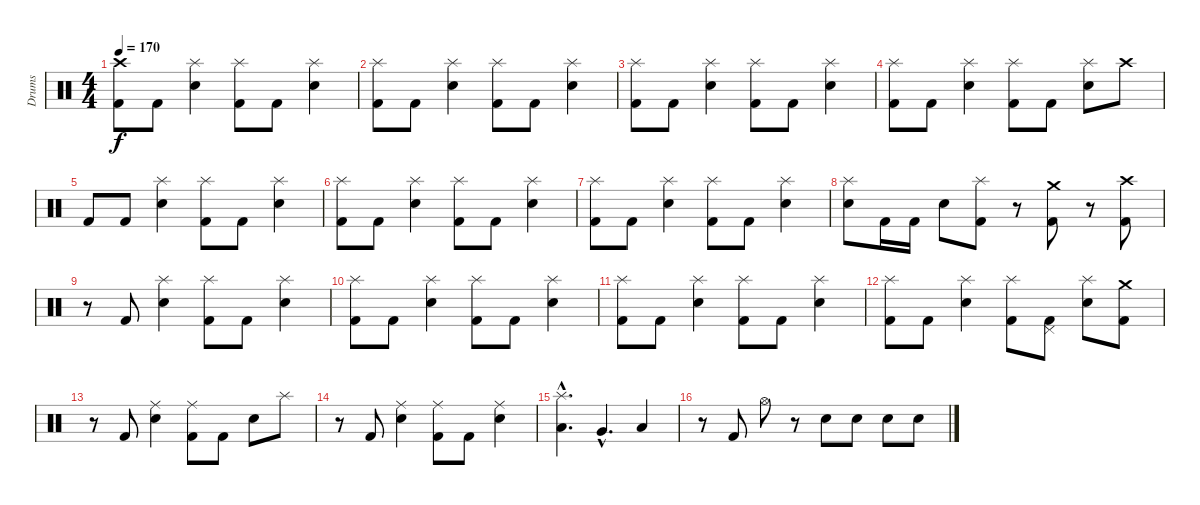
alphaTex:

\track ("Drums" "Drums") {instrument percussion}
\staff {score}
\articulation defaults
\ts (4 4)
\tempo 170
\clef neutral
\ks c
("Crash high (hit)" "Kick (hit) 2").8{dy f} "Kick (hit) 2".8 ("Splash (hit)" "Electric Snare (hit)").4 ("Splash (hit)" "Kick (hit) 2").8 "Kick (hit) 2".8 ("Splash (hit)" "Electric Snare (hit)").4 |
("Splash (hit)" "Kick (hit) 2").8 "Kick (hit) 2".8 ("Splash (hit)" "Electric Snare (hit)").4 ("Splash (hit)" "Kick (hit) 2").8 "Kick (hit) 2".8 ("Splash (hit)" "Electric Snare (hit)").4 |
("Splash (hit)" "Kick (hit) 2").8 "Kick (hit) 2".8 ("Splash (hit)" "Electric Snare (hit)").4 ("Splash (hit)" "Kick (hit) 2").8 "Kick (hit) 2".8 ("Splash (hit)" "Electric Snare (hit)").4 |
("Splash (hit)" "Kick (hit) 2").8 "Kick (hit) 2".8 ("Splash (hit)" "Electric Snare (hit)").4 ("Splash (hit)" "Kick (hit) 2").8 "Kick (hit) 2".8 ("Splash (hit)" "Electric Snare (hit)").8 "Crash high (hit)".8 |
"Kick (hit) 2".8 "Kick (hit) 2".8 ("Splash (hit)" "Electric Snare (hit)").4 ("Splash (hit)" "Kick (hit) 2").8 "Kick (hit) 2".8 ("Splash (hit)" "Electric Snare (hit)").4 |
("Splash (hit)" "Kick (hit) 2").8 "Kick (hit) 2".8 ("Splash (hit)" "Electric Snare (hit)").4 ("Splash (hit)" "Kick (hit) 2").8 "Kick (hit) 2".8 ("Splash (hit)" "Electric Snare (hit)").4 |
("Splash (hit)" "Kick (hit) 2").8 "Kick (hit) 2".8 ("Splash (hit)" "Electric Snare (hit)").4 ("Splash (hit)" "Kick (hit) 2").8 "Kick (hit) 2".8 ("Splash (hit)" "Electric Snare (hit)").4 |
("Splash (hit)" "Electric Snare (hit)").8 "Kick (hit) 2".16 "Kick (hit) 2".16 "Electric Snare (hit)".8 ("Splash (hit)" "Kick (hit) 2").8 r.8 ("Crash medium (hit)" "Kick (hit) 2").8 r.8 ("Crash high (hit)" "Kick (hit) 2").8 |
r.8 "Kick (hit) 2".8 ("Splash (hit)" "Electric Snare (hit)").4 ("Splash (hit)" "Kick (hit) 2").8 "Kick (hit) 2".8 ("Splash (hit)" "Electric Snare (hit)").4 |
("Splash (hit)" "Kick (hit) 2").8 "Kick (hit) 2".8 ("Splash (hit)" "Electric Snare (hit)").4 ("Splash (hit)" "Kick (hit) 2").8 "Kick (hit) 2".8 ("Splash (hit)" "Electric Snare (hit)").4 |
("Splash (hit)" "Kick (hit) 2").8 "Kick (hit) 2".8 ("Splash (hit)" "Electric Snare (hit)").4 ("Splash (hit)" "Kick (hit) 2").8 "Kick (hit) 2".8 ("Splash (hit)" "Electric Snare (hit)").4 |
("Splash (hit)" "Kick (hit) 2").8 "Kick (hit) 2".8 ("Splash (hit)" "Electric Snare (hit)").4 ("Splash (hit)" "Kick (hit) 2").8 ("Pedal Hi-Hat (hit)" "Kick (hit) 2").8 ("Splash (hit)" "Electric Snare (hit)").8 ("Crash medium (hit)" "Kick (hit) 2").8 |
r.8 "Kick (hit) 2".8 ("Ride (middle)" "Electric Snare (hit)").4 ("Ride (middle)" "Kick (hit) 2").8 "Kick (hit) 2".8 "Electric Snare (hit)".8 "Splash (hit)".8 |
r.8 "Kick (hit) 2".8 ("Ride (middle)" "Electric Snare (hit)").4 ("Ride (middle)" "Kick (hit) 2").8 "Kick (hit) 2".8 ("Ride (middle)" "Electric Snare (hit)").4 |
("Splash (hit)"{hac} "Low Floor Tom (hit)"{hac}).4{d} "Very Low Tom (hit)"{hac}.4{d} "Low Tom (hit)".4 |
r.8 "Kick (hit) 2".8 "Hi-Hat (open)".8 r.8 "Electric Snare (hit)".8 "Electric Snare (hit)".8 "Electric Snare (hit)".8 "Electric Snare (hit)".8
